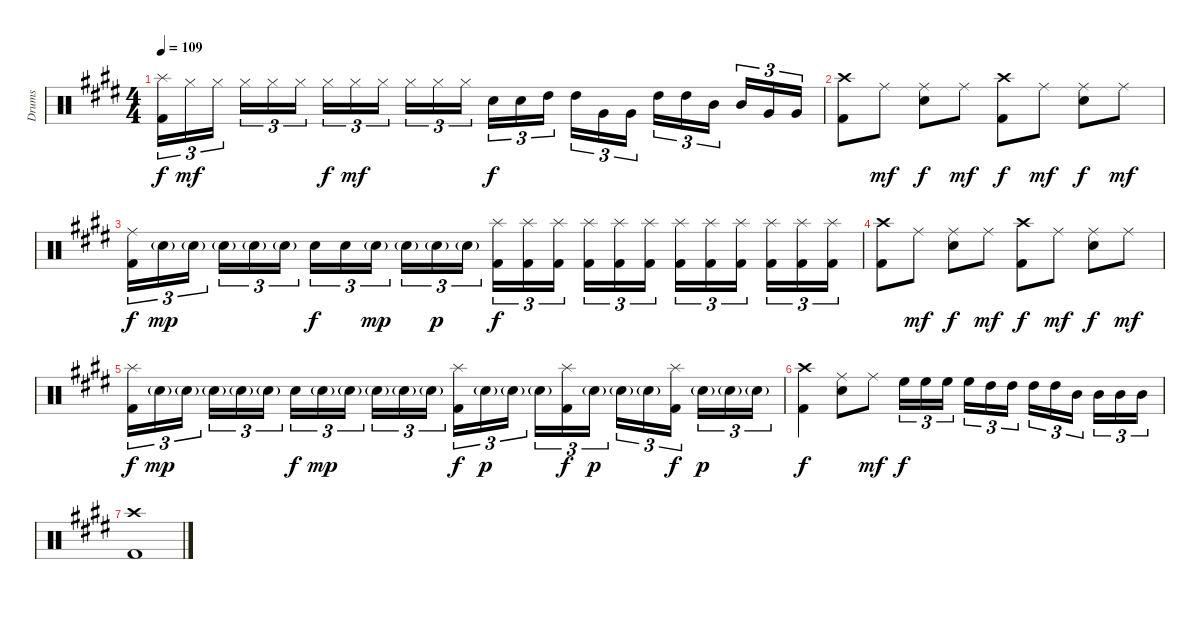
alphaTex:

\track ("Drums" "Drums") {instrument percussion}
\staff {score}
\articulation defaults
\ts (4 4)
\tempo 109
\clef neutral
\ks e
("Splash (hit)" "Kick (hit) 2").16{tu (3 2) dy f} "Hi-Hat (closed)".16{tu (3 2) dy mf} "Hi-Hat (closed)".16{tu (3 2) beam splitsecondary} "Hi-Hat (closed)".16{tu (3 2)} "Hi-Hat (closed)".16{tu (3 2)} "Hi-Hat (closed)".16{tu (3 2)} "Hi-Hat (closed)".16{tu (3 2) dy f} "Hi-Hat (closed)".16{tu (3 2) dy mf} "Hi-Hat (closed)".16{tu (3 2) beam splitsecondary} "Hi-Hat (closed)".16{tu (3 2)} "Hi-Hat (closed)".16{tu (3 2)} "Hi-Hat (closed)".16{tu (3 2)} "Electric Snare (hit)".16{tu (3 2) dy f} "Electric Snare (hit)".16{tu (3 2)} "High Tom (hit)".16{tu (3 2) beam splitsecondary} "High Tom (hit)".16{tu (3 2)} "Very Low Tom (hit)".16{tu (3 2)} "Very Low Tom (hit)".16{tu (3 2)} "High Tom (hit)".16{tu (3 2)} "High Tom (hit)".16{tu (3 2)} "Mid Tom (hit)".16{tu (3 2) beam splitsecondary} "Mid Tom (hit)".16{tu (3 2)} "Very Low Tom (hit)".16{tu (3 2)} "Very Low Tom (hit)".16{tu (3 2)} |
("Crash high (hit)" "Kick (hit) 2").8 "Ride (middle)".8{dy mf} ("Ride (middle)" "Electric Snare (hit)").8{dy f} "Ride (middle)".8{dy mf} ("Crash high (hit)" "Kick (hit) 2").8{dy f} "Ride (middle)".8{dy mf} ("Ride (middle)" "Electric Snare (hit)").8{dy f} "Ride (middle)".8{dy mf} |
("Ride (middle)" "Kick (hit) 2").16{tu (3 2) dy f} "Electric Snare (hit)"{g}.16{tu (3 2) dy mp} "Electric Snare (hit)"{g}.16{tu (3 2) beam splitsecondary} "Electric Snare (hit)"{g}.16{tu (3 2)} "Electric Snare (hit)"{g}.16{tu (3 2)} "Electric Snare (hit)"{g}.16{tu (3 2)} "Electric Snare (hit)".16{tu (3 2) dy f} "Electric Snare (hit)".16{tu (3 2)} "Electric Snare (hit)"{g}.16{tu (3 2) dy mp beam splitsecondary} "Electric Snare (hit)"{g}.16{tu (3 2)} "Electric Snare (hit)"{g}.16{tu (3 2) dy p} "Electric Snare (hit)"{g}.16{tu (3 2)} ("Splash (hit)" "Kick (hit) 2").16{tu (3 2) dy f} ("Splash (hit)" "Kick (hit) 2").16{tu (3 2)} ("Splash (hit)" "Kick (hit) 2").16{tu (3 2) beam splitsecondary} ("Splash (hit)" "Kick (hit) 2").16{tu (3 2)} ("Splash (hit)" "Kick (hit) 2").16{tu (3 2)} ("Splash (hit)" "Kick (hit) 2").16{tu (3 2)} ("Splash (hit)" "Kick (hit) 2").16{tu (3 2)} ("Splash (hit)" "Kick (hit) 2").16{tu (3 2)} ("Splash (hit)" "Kick (hit) 2").16{tu (3 2) beam splitsecondary} ("Splash (hit)" "Kick (hit) 2").16{tu (3 2)} ("Splash (hit)" "Kick (hit) 2").16{tu (3 2)} ("Splash (hit)" "Kick (hit) 2").16{tu (3 2)} |
("Crash high (hit)" "Kick (hit) 2").8 "Ride (middle)".8{dy mf} ("Ride (middle)" "Electric Snare (hit)").8{dy f} "Ride (middle)".8{dy mf} ("Crash high (hit)" "Kick (hit) 2").8{dy f} "Ride (middle)".8{dy mf} ("Ride (middle)" "Electric Snare (hit)").8{dy f} "Ride (middle)".8{dy mf} |
("Splash (hit)" "Kick (hit) 2").16{tu (3 2) dy f} "Electric Snare (hit)"{g}.16{tu (3 2) dy mp} "Electric Snare (hit)"{g}.16{tu (3 2) beam splitsecondary} "Electric Snare (hit)"{g}.16{tu (3 2)} "Electric Snare (hit)"{g}.16{tu (3 2)} "Electric Snare (hit)"{g}.16{tu (3 2)} "Electric Snare (hit)".16{tu (3 2) dy f} "Electric Snare (hit)"{g}.16{tu (3 2) dy mp} "Electric Snare (hit)"{g}.16{tu (3 2) beam splitsecondary} "Electric Snare (hit)"{g}.16{tu (3 2)} "Electric Snare (hit)"{g}.16{tu (3 2)} "Electric Snare (hit)"{g}.16{tu (3 2)} ("Splash (hit)" "Kick (hit) 2").16{tu (3 2) dy f} "Electric Snare (hit)"{g}.16{tu (3 2) dy p} "Electric Snare (hit)"{g}.16{tu (3 2) beam splitsecondary} "Electric Snare (hit)"{g}.16{tu (3 2)} ("Splash (hit)" "Kick (hit) 2").16{tu (3 2) dy f} "Electric Snare (hit)"{g}.16{tu (3 2) dy p} "Electric Snare (hit)"{g}.16{tu (3 2)} "Electric Snare (hit)"{g}.16{tu (3 2)} ("Splash (hit)" "Kick (hit) 2").16{tu (3 2) dy f beam splitsecondary} "Electric Snare (hit)"{g}.16{tu (3 2) dy p} "Electric Snare (hit)"{g}.16{tu (3 2)} "Electric Snare (hit)"{g}.16{tu (3 2)} |
("Crash high (hit)" "Kick (hit) 2").4{dy f} ("Ride (middle)" "Electric Snare (hit)").8 "Ride (middle)".8{dy mf} "High Floor Tom (hit)".16{tu (3 2) dy f} "High Floor Tom (hit)".16{tu (3 2)} "High Floor Tom (hit)".16{tu (3 2) beam splitsecondary} "High Floor Tom (hit)".16{tu (3 2)} "High Tom (hit)".16{tu (3 2)} "High Tom (hit)".16{tu (3 2)} "High Tom (hit)".16{tu (3 2)} "High Tom (hit)".16{tu (3 2)} "Mid Tom (hit)".16{tu (3 2) beam splitsecondary} "Mid Tom (hit)".16{tu (3 2)} "Mid Tom (hit)".16{tu (3 2)} "Mid Tom (hit)".16{tu (3 2)} |
("Crash high (hit)" "Kick (hit) 2").1
